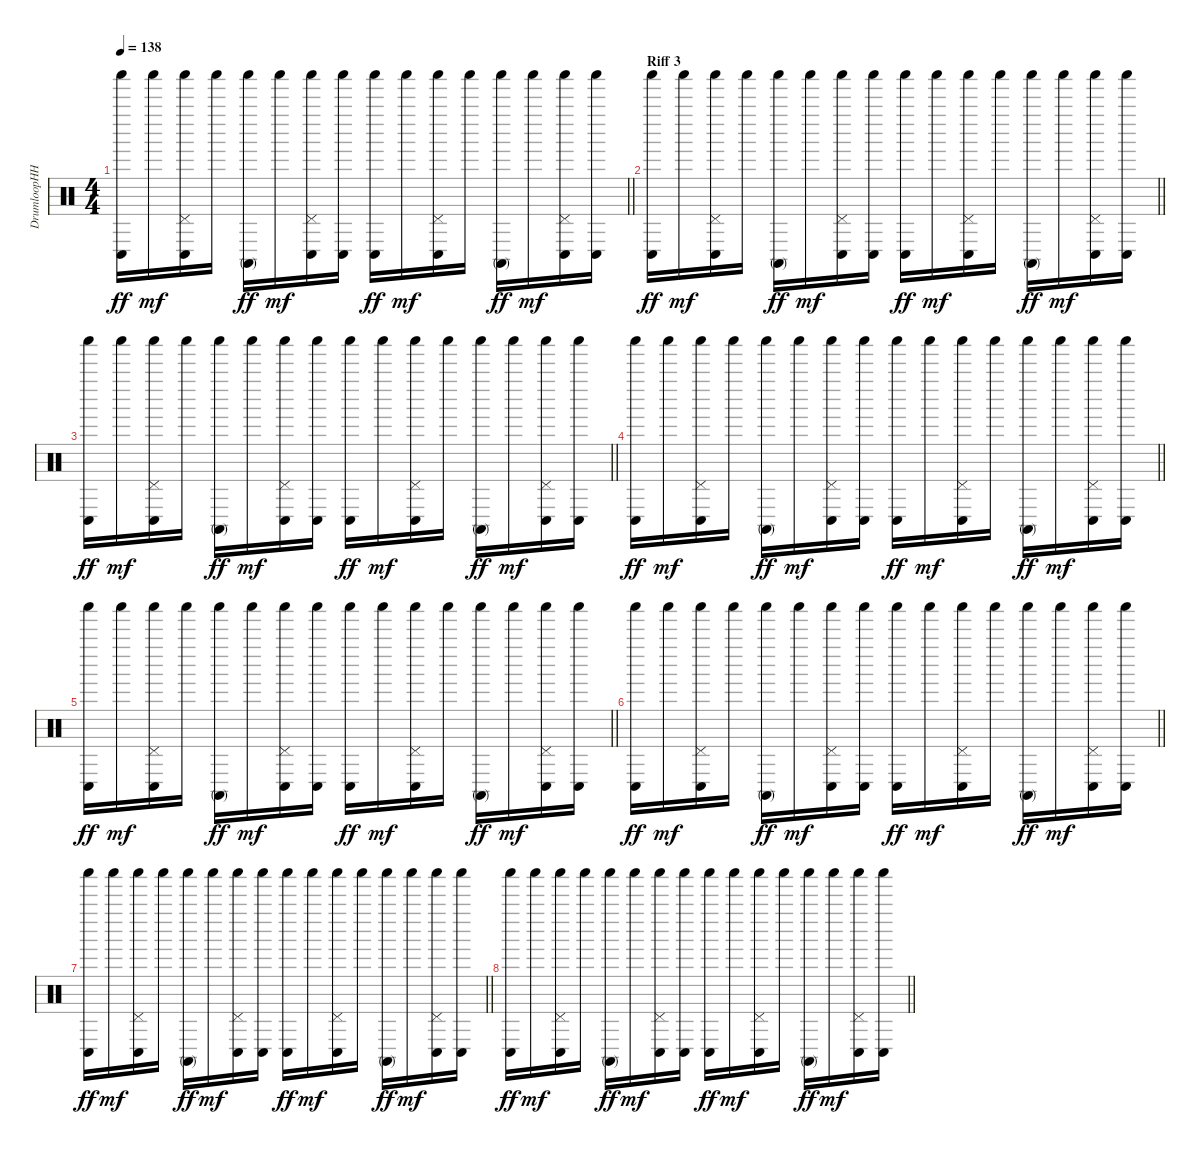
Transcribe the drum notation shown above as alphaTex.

\track ("DrumloopHH" "DrumloopHH") {instrument percussion}
\staff {score}
\articulation defaults
\ts (4 4)
\tempo 138
\clef neutral
\barLineRight lightlight
\ks c
("Conga low (hit)" "Shaker (hit)").16{dy ff} "Shaker (hit)".16{dy mf} ("Conga low (hit)" "Pedal Hi-Hat (hit)" "Shaker (hit)").16 "Shaker (hit)".16 ("Conga high (mute)" "Shaker (hit)").16{dy ff} "Shaker (hit)".16{dy mf} ("Conga low (hit)" "Pedal Hi-Hat (hit)" "Shaker (hit)").16 ("Conga low (hit)" "Shaker (hit)").16 ("Conga low (hit)" "Shaker (hit)").16{dy ff} "Shaker (hit)".16{dy mf} ("Conga low (hit)" "Pedal Hi-Hat (hit)" "Shaker (hit)").16 "Shaker (hit)".16 ("Conga high (mute)" "Shaker (hit)").16{dy ff} "Shaker (hit)".16{dy mf} ("Conga low (hit)" "Pedal Hi-Hat (hit)" "Shaker (hit)").16 ("Conga low (hit)" "Shaker (hit)").16 |
\section ("" "Riff 3")
\barLineRight lightlight
("Conga low (hit)" "Shaker (hit)").16{dy ff} "Shaker (hit)".16{dy mf} ("Conga low (hit)" "Pedal Hi-Hat (hit)" "Shaker (hit)").16 "Shaker (hit)".16 ("Conga high (mute)" "Shaker (hit)").16{dy ff} "Shaker (hit)".16{dy mf} ("Conga low (hit)" "Pedal Hi-Hat (hit)" "Shaker (hit)").16 ("Conga low (hit)" "Shaker (hit)").16 ("Conga low (hit)" "Shaker (hit)").16{dy ff} "Shaker (hit)".16{dy mf} ("Conga low (hit)" "Pedal Hi-Hat (hit)" "Shaker (hit)").16 "Shaker (hit)".16 ("Conga high (mute)" "Shaker (hit)").16{dy ff} "Shaker (hit)".16{dy mf} ("Conga low (hit)" "Pedal Hi-Hat (hit)" "Shaker (hit)").16 ("Conga low (hit)" "Shaker (hit)").16 |
\barLineRight lightlight
("Conga low (hit)" "Shaker (hit)").16{dy ff} "Shaker (hit)".16{dy mf} ("Conga low (hit)" "Pedal Hi-Hat (hit)" "Shaker (hit)").16 "Shaker (hit)".16 ("Conga high (mute)" "Shaker (hit)").16{dy ff} "Shaker (hit)".16{dy mf} ("Conga low (hit)" "Pedal Hi-Hat (hit)" "Shaker (hit)").16 ("Conga low (hit)" "Shaker (hit)").16 ("Conga low (hit)" "Shaker (hit)").16{dy ff} "Shaker (hit)".16{dy mf} ("Conga low (hit)" "Pedal Hi-Hat (hit)" "Shaker (hit)").16 "Shaker (hit)".16 ("Conga high (mute)" "Shaker (hit)").16{dy ff} "Shaker (hit)".16{dy mf} ("Conga low (hit)" "Pedal Hi-Hat (hit)" "Shaker (hit)").16 ("Conga low (hit)" "Shaker (hit)").16 |
\barLineRight lightlight
("Conga low (hit)" "Shaker (hit)").16{dy ff} "Shaker (hit)".16{dy mf} ("Conga low (hit)" "Pedal Hi-Hat (hit)" "Shaker (hit)").16 "Shaker (hit)".16 ("Conga high (mute)" "Shaker (hit)").16{dy ff} "Shaker (hit)".16{dy mf} ("Conga low (hit)" "Pedal Hi-Hat (hit)" "Shaker (hit)").16 ("Conga low (hit)" "Shaker (hit)").16 ("Conga low (hit)" "Shaker (hit)").16{dy ff} "Shaker (hit)".16{dy mf} ("Conga low (hit)" "Pedal Hi-Hat (hit)" "Shaker (hit)").16 "Shaker (hit)".16 ("Conga high (mute)" "Shaker (hit)").16{dy ff} "Shaker (hit)".16{dy mf} ("Conga low (hit)" "Pedal Hi-Hat (hit)" "Shaker (hit)").16 ("Conga low (hit)" "Shaker (hit)").16 |
\barLineRight lightlight
("Conga low (hit)" "Shaker (hit)").16{dy ff} "Shaker (hit)".16{dy mf} ("Conga low (hit)" "Pedal Hi-Hat (hit)" "Shaker (hit)").16 "Shaker (hit)".16 ("Conga high (mute)" "Shaker (hit)").16{dy ff} "Shaker (hit)".16{dy mf} ("Conga low (hit)" "Pedal Hi-Hat (hit)" "Shaker (hit)").16 ("Conga low (hit)" "Shaker (hit)").16 ("Conga low (hit)" "Shaker (hit)").16{dy ff} "Shaker (hit)".16{dy mf} ("Conga low (hit)" "Pedal Hi-Hat (hit)" "Shaker (hit)").16 "Shaker (hit)".16 ("Conga high (mute)" "Shaker (hit)").16{dy ff} "Shaker (hit)".16{dy mf} ("Conga low (hit)" "Pedal Hi-Hat (hit)" "Shaker (hit)").16 ("Conga low (hit)" "Shaker (hit)").16 |
\barLineRight lightlight
("Conga low (hit)" "Shaker (hit)").16{dy ff} "Shaker (hit)".16{dy mf} ("Conga low (hit)" "Pedal Hi-Hat (hit)" "Shaker (hit)").16 "Shaker (hit)".16 ("Conga high (mute)" "Shaker (hit)").16{dy ff} "Shaker (hit)".16{dy mf} ("Conga low (hit)" "Pedal Hi-Hat (hit)" "Shaker (hit)").16 ("Conga low (hit)" "Shaker (hit)").16 ("Conga low (hit)" "Shaker (hit)").16{dy ff} "Shaker (hit)".16{dy mf} ("Conga low (hit)" "Pedal Hi-Hat (hit)" "Shaker (hit)").16 "Shaker (hit)".16 ("Conga high (mute)" "Shaker (hit)").16{dy ff} "Shaker (hit)".16{dy mf} ("Conga low (hit)" "Pedal Hi-Hat (hit)" "Shaker (hit)").16 ("Conga low (hit)" "Shaker (hit)").16 |
\barLineRight lightlight
("Conga low (hit)" "Shaker (hit)").16{dy ff} "Shaker (hit)".16{dy mf} ("Conga low (hit)" "Pedal Hi-Hat (hit)" "Shaker (hit)").16 "Shaker (hit)".16 ("Conga high (mute)" "Shaker (hit)").16{dy ff} "Shaker (hit)".16{dy mf} ("Conga low (hit)" "Pedal Hi-Hat (hit)" "Shaker (hit)").16 ("Conga low (hit)" "Shaker (hit)").16 ("Conga low (hit)" "Shaker (hit)").16{dy ff} "Shaker (hit)".16{dy mf} ("Conga low (hit)" "Pedal Hi-Hat (hit)" "Shaker (hit)").16 "Shaker (hit)".16 ("Conga high (mute)" "Shaker (hit)").16{dy ff} "Shaker (hit)".16{dy mf} ("Conga low (hit)" "Pedal Hi-Hat (hit)" "Shaker (hit)").16 ("Conga low (hit)" "Shaker (hit)").16 |
\barLineRight lightlight
("Conga low (hit)" "Shaker (hit)").16{dy ff} "Shaker (hit)".16{dy mf} ("Conga low (hit)" "Pedal Hi-Hat (hit)" "Shaker (hit)").16 "Shaker (hit)".16 ("Conga high (mute)" "Shaker (hit)").16{dy ff} "Shaker (hit)".16{dy mf} ("Conga low (hit)" "Pedal Hi-Hat (hit)" "Shaker (hit)").16 ("Conga low (hit)" "Shaker (hit)").16 ("Conga low (hit)" "Shaker (hit)").16{dy ff} "Shaker (hit)".16{dy mf} ("Conga low (hit)" "Pedal Hi-Hat (hit)" "Shaker (hit)").16 "Shaker (hit)".16 ("Conga high (mute)" "Shaker (hit)").16{dy ff} "Shaker (hit)".16{dy mf} ("Conga low (hit)" "Pedal Hi-Hat (hit)" "Shaker (hit)").16 ("Conga low (hit)" "Shaker (hit)").16
